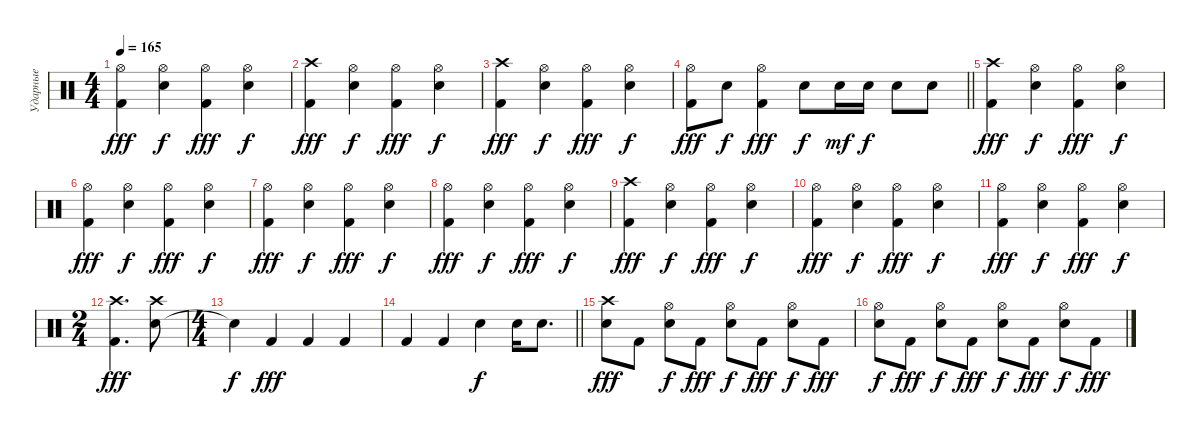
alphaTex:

\track ("Ударные" "Ударные") {instrument percussion}
\staff {score}
\articulation defaults
\ts (4 4)
\tempo 165
\clef neutral
\ks c
("Kick (hit) 2" "Hi-Hat (open)").4{dy fff} ("Snare (hit) 2" "Hi-Hat (open)").4{dy f} ("Kick (hit) 2" "Hi-Hat (open)").4{dy fff} ("Snare (hit) 2" "Hi-Hat (open)").4{dy f} |
("Kick (hit) 2" "Crash high (hit)").4{dy fff} ("Snare (hit) 2" "Hi-Hat (open)").4{dy f} ("Kick (hit) 2" "Hi-Hat (open)").4{dy fff} ("Snare (hit) 2" "Hi-Hat (open)").4{dy f} |
("Kick (hit) 2" "Crash high (hit)").4{dy fff} ("Snare (hit) 2" "Hi-Hat (open)").4{dy f} ("Kick (hit) 2" "Hi-Hat (open)").4{dy fff} ("Snare (hit) 2" "Hi-Hat (open)").4{dy f} |
\barLineRight lightlight
("Kick (hit) 2" "Hi-Hat (open)").8{dy fff} "Snare (hit) 2".8{dy f} ("Kick (hit) 2" "Hi-Hat (open)").4{dy fff} "Snare (hit) 2".8{dy f} "Snare (hit) 2".16{dy mf} "Snare (hit) 2".16{dy f} "Snare (hit) 2".8 "Snare (hit) 2".8 |
("Kick (hit) 2" "Crash high (hit)").4{dy fff} ("Snare (hit) 2" "Hi-Hat (open)").4{dy f} ("Kick (hit) 2" "Hi-Hat (open)").4{dy fff} ("Snare (hit) 2" "Hi-Hat (open)").4{dy f} |
("Kick (hit) 2" "Hi-Hat (open)").4{dy fff} ("Snare (hit) 2" "Hi-Hat (open)").4{dy f} ("Kick (hit) 2" "Hi-Hat (open)").4{dy fff} ("Snare (hit) 2" "Hi-Hat (open)").4{dy f} |
("Kick (hit) 2" "Hi-Hat (open)").4{dy fff} ("Snare (hit) 2" "Hi-Hat (open)").4{dy f} ("Kick (hit) 2" "Hi-Hat (open)").4{dy fff} ("Snare (hit) 2" "Hi-Hat (open)").4{dy f} |
("Kick (hit) 2" "Hi-Hat (open)").4{dy fff} ("Snare (hit) 2" "Hi-Hat (open)").4{dy f} ("Kick (hit) 2" "Hi-Hat (open)").4{dy fff} ("Snare (hit) 2" "Hi-Hat (open)").4{dy f} |
("Kick (hit) 2" "Crash high (hit)").4{dy fff} ("Snare (hit) 2" "Hi-Hat (open)").4{dy f} ("Kick (hit) 2" "Hi-Hat (open)").4{dy fff} ("Snare (hit) 2" "Hi-Hat (open)").4{dy f} |
("Kick (hit) 2" "Hi-Hat (open)").4{dy fff} ("Snare (hit) 2" "Hi-Hat (open)").4{dy f} ("Kick (hit) 2" "Hi-Hat (open)").4{dy fff} ("Snare (hit) 2" "Hi-Hat (open)").4{dy f} |
("Kick (hit) 2" "Hi-Hat (open)").4{dy fff} ("Snare (hit) 2" "Hi-Hat (open)").4{dy f} ("Kick (hit) 2" "Hi-Hat (open)").4{dy fff} ("Snare (hit) 2" "Hi-Hat (open)").4{dy f} |
\ts (2 4)
("Kick (hit) 2" "Crash high (hit)").4{d dy fff} ("Snare (hit) 2" "Crash high (hit)").8 |
\ts (4 4)
"Snare (hit)"{t}.4{dy f} "Kick (hit) 2".4{dy fff} "Kick (hit) 2".4 "Kick (hit) 2".4 |
\barLineRight lightlight "Kick (hit) 2".4 "Kick (hit) 2".4 "Snare (hit) 2".4{dy f} "Snare (hit) 2".16 "Snare (hit) 2".8{d}
|
("Snare (hit) 2" "Crash high (hit)").8{dy fff} "Kick (hit) 2".8 ("Snare (hit) 2" "Hi-Hat (open)").8{dy f} "Kick (hit) 2".8{dy fff} ("Snare (hit) 2" "Hi-Hat (open)").8{dy f} "Kick (hit) 2".8{dy fff} ("Snare (hit) 2" "Hi-Hat (open)").8{dy f} "Kick (hit) 2".8{dy fff} |
("Snare (hit) 2" "Hi-Hat (open)").8{dy f} "Kick (hit) 2".8{dy fff} ("Snare (hit) 2" "Hi-Hat (open)").8{dy f} "Kick (hit) 2".8{dy fff} ("Snare (hit) 2" "Hi-Hat (open)").8{dy f} "Kick (hit) 2".8{dy fff} ("Snare (hit) 2" "Hi-Hat (open)").8{dy f} "Kick (hit) 2".8{dy fff}
